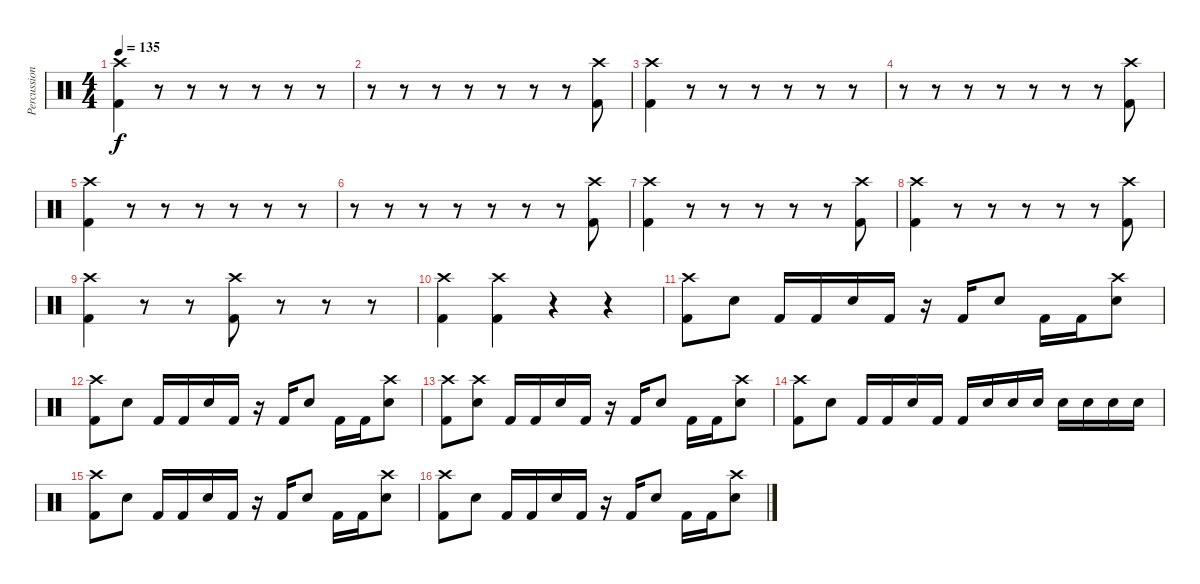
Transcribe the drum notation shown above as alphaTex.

\track ("Percussion" "Percussion") {instrument percussion}
\staff {score}
\articulation defaults
\ts (4 4)
\tempo 135
\clef neutral
\ks c
("Kick (hit) 2" "Crash high (hit)").4{dy f} r.8{volume 0} r.8 r.8 r.8 r.8 r.8 |
r.8 r.8 r.8 r.8 r.8 r.8 r.8 ("Kick (hit) 2" "Crash high (hit)").8{volume 13} |
("Kick (hit) 2" "Crash high (hit)").4 r.8{volume 0} r.8 r.8 r.8 r.8 r.8 |
r.8 r.8 r.8 r.8 r.8 r.8 r.8 ("Kick (hit) 2" "Crash high (hit)").8{volume 13} |
("Kick (hit) 2" "Crash high (hit)").4 r.8{volume 0} r.8 r.8 r.8 r.8 r.8 |
r.8 r.8 r.8 r.8 r.8 r.8 r.8 ("Kick (hit) 2" "Crash high (hit)").8{volume 13} |
("Kick (hit) 2" "Crash high (hit)").4 r.8{volume 0} r.8 r.8 r.8 r.8 ("Kick (hit) 2" "Crash high (hit)").8{volume 13} |
("Kick (hit) 2" "Crash high (hit)").4 r.8{volume 0} r.8 r.8 r.8 r.8 ("Kick (hit) 2" "Crash high (hit)").8{volume 13} |
("Kick (hit) 2" "Crash high (hit)").4 r.8{volume 0} r.8 ("Kick (hit) 2" "Crash high (hit)").8{volume 11} r.8{volume 0} r.8 r.8 |
("Kick (hit) 2" "Crash high (hit)").4{volume 11} ("Kick (hit) 2" "Crash high (hit)").4 r.4{volume 0} r.4 |
("Kick (hit) 2" "Crash high (hit)").8{volume 11} "Electric Snare (hit)".8 "Kick (hit) 2".16 "Kick (hit) 2".16 "Electric Snare (hit)".16 "Kick (hit) 2".16 r.16 "Kick (hit) 2".16 "Electric Snare (hit)".8 "Kick (hit) 2".16 "Kick (hit) 2".16 ("Electric Snare (hit)" "Crash high (hit)").8 |
("Kick (hit) 2" "Crash high (hit)").8 "Electric Snare (hit)".8 "Kick (hit) 2".16 "Kick (hit) 2".16 "Electric Snare (hit)".16 "Kick (hit) 2".16 r.16 "Kick (hit) 2".16 "Electric Snare (hit)".8 "Kick (hit) 2".16 "Kick (hit) 2".16 ("Electric Snare (hit)" "Crash high (hit)").8 |
("Kick (hit) 2" "Crash high (hit)").8 ("Electric Snare (hit)" "Crash high (hit)").8 "Kick (hit) 2".16 "Kick (hit) 2".16 "Electric Snare (hit)".16 "Kick (hit) 2".16 r.16 "Kick (hit) 2".16 "Electric Snare (hit)".8 "Kick (hit) 2".16 "Kick (hit) 2".16 ("Electric Snare (hit)" "Crash high (hit)").8 |
("Kick (hit) 2" "Crash high (hit)").8 "Electric Snare (hit)".8 "Kick (hit) 2".16 "Kick (hit) 2".16 "Electric Snare (hit)".16 "Kick (hit) 2".16 "Kick (hit) 2".16 "Electric Snare (hit)".16 "Electric Snare (hit)".16 "Electric Snare (hit)".16 "Electric Snare (hit)".16 "Electric Snare (hit)".16 "Electric Snare (hit)".16 "Electric Snare (hit)".16 |
("Kick (hit) 2" "Crash high (hit)").8 "Electric Snare (hit)".8 "Kick (hit) 2".16 "Kick (hit) 2".16 "Electric Snare (hit)".16 "Kick (hit) 2".16 r.16 "Kick (hit) 2".16 "Electric Snare (hit)".8 "Kick (hit) 2".16 "Kick (hit) 2".16 ("Electric Snare (hit)" "Crash high (hit)").8 |
("Kick (hit) 2" "Crash high (hit)").8 "Electric Snare (hit)".8 "Kick (hit) 2".16 "Kick (hit) 2".16 "Electric Snare (hit)".16 "Kick (hit) 2".16 r.16 "Kick (hit) 2".16 "Electric Snare (hit)".8 "Kick (hit) 2".16 "Kick (hit) 2".16 ("Electric Snare (hit)" "Crash high (hit)").8
